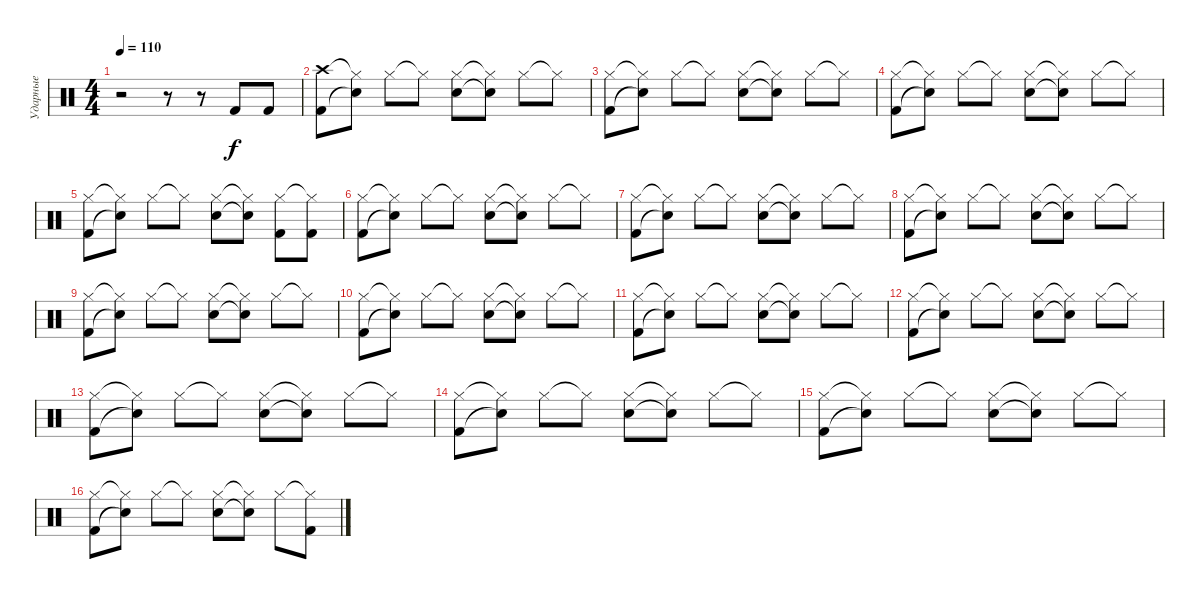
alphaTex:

\track ("Ударные" "Ударные") {instrument percussion}
\staff {score}
\articulation defaults
\ts (4 4)
\tempo 110
\clef neutral
\ks c
r.2{dy f} r.8 r.8 "Kick (hit) 2".8 "Kick (hit) 2".8 |
("Crash high (hit)" "Kick (hit) 2").8 ("Hi-Hat (closed)"{t} "Snare (hit)"{t}).8 "Hi-Hat (closed)".8 "Hi-Hat (closed)"{t}.8 ("Hi-Hat (closed)" "Snare (hit) 2").8 ("Hi-Hat (closed)"{t} "Snare (hit)"{t}).8 "Hi-Hat (closed)".8 "Hi-Hat (closed)"{t}.8 |
("Hi-Hat (closed)" "Kick (hit) 2").8 ("Hi-Hat (closed)"{t} "Snare (hit)"{t}).8 "Hi-Hat (closed)".8 "Hi-Hat (closed)"{t}.8 ("Hi-Hat (closed)" "Snare (hit) 2").8 ("Hi-Hat (closed)"{t} "Snare (hit)"{t}).8 "Hi-Hat (closed)".8 "Hi-Hat (closed)"{t}.8 |
("Hi-Hat (closed)" "Kick (hit) 2").8 ("Hi-Hat (closed)"{t} "Snare (hit)"{t}).8 "Hi-Hat (closed)".8 "Hi-Hat (closed)"{t}.8 ("Hi-Hat (closed)" "Snare (hit) 2").8 ("Hi-Hat (closed)"{t} "Snare (hit)"{t}).8 "Hi-Hat (closed)".8 "Hi-Hat (closed)"{t}.8 |
("Hi-Hat (closed)" "Kick (hit) 2").8 ("Hi-Hat (closed)"{t} "Snare (hit)"{t}).8 "Hi-Hat (closed)".8 "Hi-Hat (closed)"{t}.8 ("Hi-Hat (closed)" "Snare (hit) 2").8 ("Hi-Hat (closed)"{t} "Snare (hit)"{t}).8 ("Hi-Hat (closed)" "Kick (hit) 2").8 ("Hi-Hat (closed)"{t} "Kick (hit) 2").8 |
("Hi-Hat (closed)" "Kick (hit) 2").8 ("Hi-Hat (closed)"{t} "Snare (hit)"{t}).8 "Hi-Hat (closed)".8 "Hi-Hat (closed)"{t}.8 ("Hi-Hat (closed)" "Snare (hit) 2").8 ("Hi-Hat (closed)"{t} "Snare (hit)"{t}).8 "Hi-Hat (closed)".8 "Hi-Hat (closed)"{t}.8 |
("Hi-Hat (closed)" "Kick (hit) 2").8 ("Hi-Hat (closed)"{t} "Snare (hit)"{t}).8 "Hi-Hat (closed)".8 "Hi-Hat (closed)"{t}.8 ("Hi-Hat (closed)" "Snare (hit) 2").8 ("Hi-Hat (closed)"{t} "Snare (hit)"{t}).8 "Hi-Hat (closed)".8 "Hi-Hat (closed)"{t}.8 |
("Hi-Hat (closed)" "Kick (hit) 2").8 ("Hi-Hat (closed)"{t} "Snare (hit)"{t}).8 "Hi-Hat (closed)".8 "Hi-Hat (closed)"{t}.8 ("Hi-Hat (closed)" "Snare (hit) 2").8 ("Hi-Hat (closed)"{t} "Snare (hit)"{t}).8 "Hi-Hat (closed)".8 "Hi-Hat (closed)"{t}.8 |
("Hi-Hat (closed)" "Kick (hit) 2").8 ("Hi-Hat (closed)"{t} "Snare (hit)"{t}).8 "Hi-Hat (closed)".8 "Hi-Hat (closed)"{t}.8 ("Hi-Hat (closed)" "Snare (hit) 2").8 ("Hi-Hat (closed)"{t} "Snare (hit)"{t}).8 "Hi-Hat (closed)".8 "Hi-Hat (closed)"{t}.8 |
("Hi-Hat (closed)" "Kick (hit) 2").8 ("Hi-Hat (closed)"{t} "Snare (hit)"{t}).8 "Hi-Hat (closed)".8 "Hi-Hat (closed)"{t}.8 ("Hi-Hat (closed)" "Snare (hit) 2").8 ("Hi-Hat (closed)"{t} "Snare (hit)"{t}).8 "Hi-Hat (closed)".8 "Hi-Hat (closed)"{t}.8 |
("Hi-Hat (closed)" "Kick (hit) 2").8 ("Hi-Hat (closed)"{t} "Snare (hit)"{t}).8 "Hi-Hat (closed)".8 "Hi-Hat (closed)"{t}.8 ("Hi-Hat (closed)" "Snare (hit) 2").8 ("Hi-Hat (closed)"{t} "Snare (hit)"{t}).8 "Hi-Hat (closed)".8 "Hi-Hat (closed)"{t}.8 |
("Hi-Hat (closed)" "Kick (hit) 2").8 ("Hi-Hat (closed)"{t} "Snare (hit)"{t}).8 "Hi-Hat (closed)".8 "Hi-Hat (closed)"{t}.8 ("Hi-Hat (closed)" "Snare (hit) 2").8 ("Hi-Hat (closed)"{t} "Snare (hit)"{t}).8 "Hi-Hat (closed)".8 "Hi-Hat (closed)"{t}.8 |
("Hi-Hat (closed)" "Kick (hit) 2").8 ("Hi-Hat (closed)"{t} "Snare (hit)"{t}).8 "Hi-Hat (closed)".8 "Hi-Hat (closed)"{t}.8 ("Hi-Hat (closed)" "Snare (hit) 2").8 ("Hi-Hat (closed)"{t} "Snare (hit)"{t}).8 "Hi-Hat (closed)".8 "Hi-Hat (closed)"{t}.8 |
("Hi-Hat (closed)" "Kick (hit) 2").8 ("Hi-Hat (closed)"{t} "Snare (hit)"{t}).8 "Hi-Hat (closed)".8 "Hi-Hat (closed)"{t}.8 ("Hi-Hat (closed)" "Snare (hit) 2").8 ("Hi-Hat (closed)"{t} "Snare (hit)"{t}).8 "Hi-Hat (closed)".8 "Hi-Hat (closed)"{t}.8 |
("Hi-Hat (closed)" "Kick (hit) 2").8 ("Hi-Hat (closed)"{t} "Snare (hit)"{t}).8 "Hi-Hat (closed)".8 "Hi-Hat (closed)"{t}.8 ("Hi-Hat (closed)" "Snare (hit) 2").8 ("Hi-Hat (closed)"{t} "Snare (hit)"{t}).8 "Hi-Hat (closed)".8 "Hi-Hat (closed)"{t}.8 |
("Hi-Hat (closed)" "Kick (hit) 2").8 ("Hi-Hat (closed)"{t} "Snare (hit)"{t}).8 "Hi-Hat (closed)".8 "Hi-Hat (closed)"{t}.8 ("Hi-Hat (closed)" "Snare (hit) 2").8 ("Hi-Hat (closed)"{t} "Snare (hit)"{t}).8 "Hi-Hat (closed)".8 ("Hi-Hat (closed)"{t} "Kick (hit) 2").8
